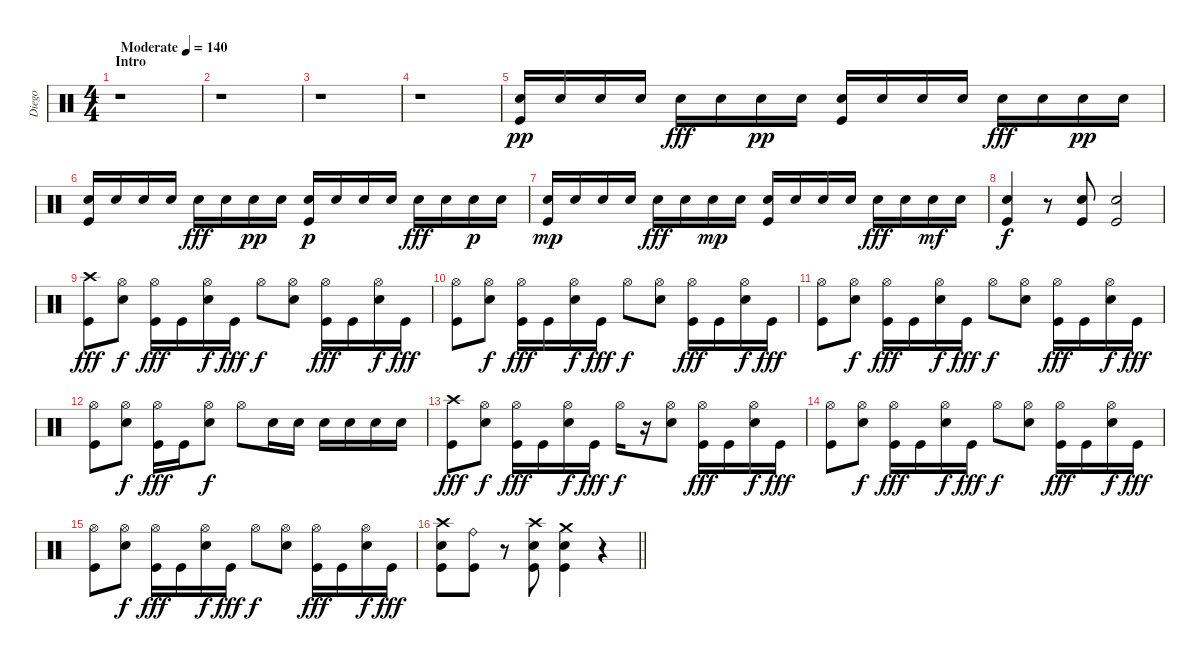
\track ("Diego" "Diego") {instrument percussion}
\staff {score}
\articulation defaults
\ts (4 4)
\section ("" "Intro")
\tempo (140 "Moderate")
\clef neutral
\ks c
r.1{dy pp} |
r.1 |
r.1 |
r.1 |
("Snare (hit) 2" "Kick (hit)").16 "Snare (hit) 2".16 "Snare (hit) 2".16 "Snare (hit) 2".16 "Snare (hit) 2".16{dy fff} "Snare (hit) 2".16 "Snare (hit) 2".16{dy pp} "Snare (hit) 2".16 ("Snare (hit) 2" "Kick (hit)").16 "Snare (hit) 2".16 "Snare (hit) 2".16 "Snare (hit) 2".16 "Snare (hit) 2".16{dy fff} "Snare (hit) 2".16 "Snare (hit) 2".16{dy pp} "Snare (hit) 2".16 |
("Snare (hit) 2" "Kick (hit)").16 "Snare (hit) 2".16 "Snare (hit) 2".16 "Snare (hit) 2".16 "Snare (hit) 2".16{dy fff} "Snare (hit) 2".16 "Snare (hit) 2".16{dy pp} "Snare (hit) 2".16 ("Snare (hit) 2" "Kick (hit)").16{dy p} "Snare (hit) 2".16 "Snare (hit) 2".16 "Snare (hit) 2".16 "Snare (hit) 2".16{dy fff} "Snare (hit) 2".16 "Snare (hit) 2".16{dy p} "Snare (hit) 2".16 |
("Snare (hit) 2" "Kick (hit)").16{dy mp} "Snare (hit) 2".16 "Snare (hit) 2".16 "Snare (hit) 2".16 "Snare (hit) 2".16{dy fff} "Snare (hit) 2".16 "Snare (hit) 2".16{dy mp} "Snare (hit) 2".16 ("Snare (hit) 2" "Kick (hit)").16 "Snare (hit) 2".16 "Snare (hit) 2".16 "Snare (hit) 2".16 "Snare (hit) 2".16{dy fff} "Snare (hit) 2".16 "Snare (hit) 2".16{dy mf} "Snare (hit) 2".16 |
("Snare (hit) 2" "Kick (hit)").4{dy f} r.8 ("Snare (hit) 2" "Kick (hit)").8 ("Snare (hit) 2" "Kick (hit)").2 |
("Crash high (hit)" "Kick (hit)").8{dy fff} ("Hi-Hat (open)" "Snare (hit) 2").8{dy f} ("Hi-Hat (open)" "Kick (hit)").16{dy fff} "Kick (hit)".16 ("Hi-Hat (open)" "Snare (hit) 2").16{dy f} "Kick (hit)".16{dy fff} "Hi-Hat (open)".8{dy f} ("Hi-Hat (open)" "Snare (hit) 2").8 ("Hi-Hat (open)" "Kick (hit)").16{dy fff} "Kick (hit)".16 ("Hi-Hat (open)" "Snare (hit) 2").16{dy f} "Kick (hit)".16{dy fff} |
("Hi-Hat (open)" "Kick (hit)").8 ("Hi-Hat (open)" "Snare (hit) 2").8{dy f} ("Hi-Hat (open)" "Kick (hit)").16{dy fff} "Kick (hit)".16 ("Hi-Hat (open)" "Snare (hit) 2").16{dy f} "Kick (hit)".16{dy fff} "Hi-Hat (open)".8{dy f} ("Hi-Hat (open)" "Snare (hit) 2").8 ("Hi-Hat (open)" "Kick (hit)").16{dy fff} "Kick (hit)".16 ("Hi-Hat (open)" "Snare (hit) 2").16{dy f} "Kick (hit)".16{dy fff} |
("Hi-Hat (open)" "Kick (hit)").8 ("Hi-Hat (open)" "Snare (hit) 2").8{dy f} ("Hi-Hat (open)" "Kick (hit)").16{dy fff} "Kick (hit)".16 ("Hi-Hat (open)" "Snare (hit) 2").16{dy f} "Kick (hit)".16{dy fff} "Hi-Hat (open)".8{dy f} ("Hi-Hat (open)" "Snare (hit) 2").8 ("Hi-Hat (open)" "Kick (hit)").16{dy fff} "Kick (hit)".16 ("Hi-Hat (open)" "Snare (hit) 2").16{dy f} "Kick (hit)".16{dy fff} |
("Hi-Hat (open)" "Kick (hit)").8 ("Hi-Hat (open)" "Snare (hit) 2").8{dy f} ("Hi-Hat (open)" "Kick (hit)").16{dy fff} "Kick (hit)".16 ("Hi-Hat (open)" "Snare (hit) 2").8{dy f} "Hi-Hat (open)".8 "Snare (hit) 2".16 "Snare (hit) 2".16 "Snare (hit) 2".16 "Snare (hit) 2".16 "Snare (hit) 2".16 "Snare (hit) 2".16 |
("Crash high (hit)" "Kick (hit)").8{dy fff} ("Hi-Hat (open)" "Snare (hit) 2").8{dy f} ("Hi-Hat (open)" "Kick (hit)").16{dy fff} "Kick (hit)".16 ("Hi-Hat (open)" "Snare (hit) 2").16{dy f} "Kick (hit)".16{dy fff} "Hi-Hat (open)".16{dy f} r.16 ("Hi-Hat (open)" "Snare (hit) 2").8 ("Hi-Hat (open)" "Kick (hit)").16{dy fff} "Kick (hit)".16 ("Hi-Hat (open)" "Snare (hit) 2").16{dy f} "Kick (hit)".16{dy fff} |
("Hi-Hat (open)" "Kick (hit)").8 ("Hi-Hat (open)" "Snare (hit) 2").8{dy f} ("Hi-Hat (open)" "Kick (hit)").16{dy fff} "Kick (hit)".16 ("Hi-Hat (open)" "Snare (hit) 2").16{dy f} "Kick (hit)".16{dy fff} "Hi-Hat (open)".8{dy f} ("Hi-Hat (open)" "Snare (hit) 2").8 ("Hi-Hat (open)" "Kick (hit)").16{dy fff} "Kick (hit)".16 ("Hi-Hat (open)" "Snare (hit) 2").16{dy f} "Kick (hit)".16{dy fff} |
("Hi-Hat (open)" "Kick (hit)").8 ("Hi-Hat (open)" "Snare (hit) 2").8{dy f} ("Hi-Hat (open)" "Kick (hit)").16{dy fff} "Kick (hit)".16 ("Hi-Hat (open)" "Snare (hit) 2").16{dy f} "Kick (hit)".16{dy fff} "Hi-Hat (open)".8{dy f} ("Hi-Hat (open)" "Snare (hit) 2").8 ("Hi-Hat (open)" "Kick (hit)").16{dy fff} "Kick (hit)".16 ("Hi-Hat (open)" "Snare (hit) 2").16{dy f} "Kick (hit)".16{dy fff} |
\barLineRight lightlight
("Crash high (hit)" "Snare (hit) 2" "Kick (hit)").8 ("Ride (bell)" "Kick (hit)").8 r.8 ("Crash high (hit)" "Snare (hit) 2" "Kick (hit)").8 ("Crash medium (hit)" "Snare (hit) 2" "Kick (hit)").4 r.4
